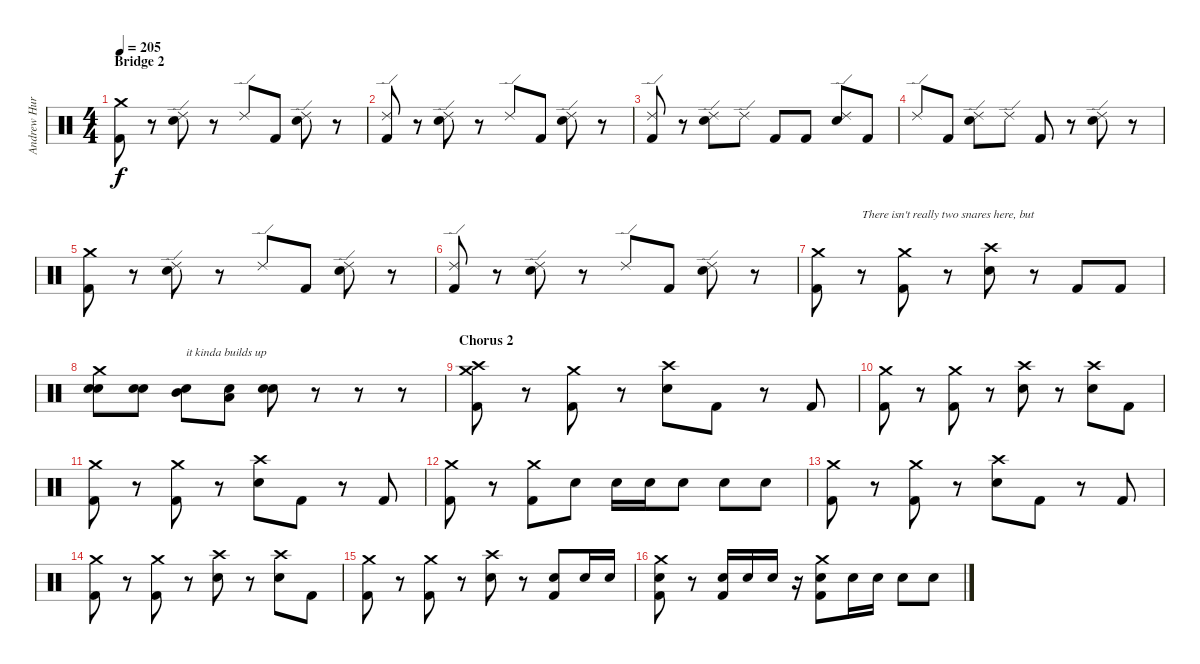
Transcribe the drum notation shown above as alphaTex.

\track ("Andrew Hurley (Drums)" "Andrew Hur") {instrument percussion}
\staff {score}
\articulation defaults
\ts (4 4)
\section ("" "Bridge 2")
\tempo 205
\clef neutral
\ks c
("Crash medium (hit)" "Kick (hit) 2").8{dy f} r.8 ("Ride (edge) 2" "Electric Snare (hit)").8 r.8 "Ride (edge) 2".8 "Kick (hit) 2".8 ("Ride (edge) 2" "Electric Snare (hit)").8 r.8 |
("Ride (edge) 2" "Kick (hit) 2").8 r.8 ("Ride (edge) 2" "Electric Snare (hit)").8 r.8 "Ride (edge) 2".8 "Kick (hit) 2".8 ("Ride (edge) 2" "Electric Snare (hit)").8 r.8 |
("Ride (edge) 2" "Kick (hit) 2").8 r.8 ("Ride (edge) 2" "Electric Snare (hit)").8 "Ride (edge) 2".8 "Kick (hit) 2".8 "Kick (hit) 2".8 ("Ride (edge) 2" "Electric Snare (hit)").8 "Kick (hit) 2".8 |
"Ride (edge) 2".8 "Kick (hit) 2".8 ("Ride (edge) 2" "Electric Snare (hit)").8 "Ride (edge) 2".8 "Kick (hit) 2".8 r.8 ("Ride (edge) 2" "Electric Snare (hit)").8 r.8 |
("Crash medium (hit)" "Kick (hit) 2").8 r.8 ("Ride (edge) 2" "Electric Snare (hit)").8 r.8 "Ride (edge) 2".8 "Kick (hit) 2".8 ("Ride (edge) 2" "Electric Snare (hit)").8 r.8 |
("Ride (edge) 2" "Kick (hit) 2").8 r.8 ("Ride (edge) 2" "Electric Snare (hit)").8 r.8 "Ride (edge) 2".8 "Kick (hit) 2".8 ("Ride (edge) 2" "Electric Snare (hit)").8 r.8 |
("Crash medium (hit)" "Kick (hit) 2").8 r.8{txt "There isn't really two snares here, but"} ("Crash medium (hit)" "Kick (hit) 2").8 r.8 ("Crash high (hit)" "Electric Snare (hit)").8 r.8 "Kick (hit) 2".8 "Kick (hit) 2".8 |
("Crash medium (hit)" "Electric Snare (hit)" "Snare (hit) 2").8 ("Electric Snare (hit)" "Snare (hit) 2").8 ("Mid Tom (hit)" "Snare (hit) 2").8{txt "it kinda builds up"} ("Low Tom (hit)" "Snare (hit) 2").8 ("Electric Snare (hit)" "Snare (hit) 2").8 r.8 r.8 r.8 |
\section ("" "Chorus 2")
("Crash high (hit)" "Crash medium (hit)" "Kick (hit) 2").8 r.8 ("Crash medium (hit)" "Kick (hit) 2").8 r.8 ("Crash high (hit)" "Electric Snare (hit)").8 "Kick (hit) 2".8 r.8 "Kick (hit) 2".8 |
("Crash medium (hit)" "Kick (hit) 2").8 r.8 ("Crash medium (hit)" "Kick (hit) 2").8 r.8 ("Crash high (hit)" "Electric Snare (hit)").8 r.8 ("Crash high (hit)" "Electric Snare (hit)").8 "Kick (hit) 2".8 |
("Crash medium (hit)" "Kick (hit) 2").8 r.8 ("Crash medium (hit)" "Kick (hit) 2").8 r.8 ("Crash high (hit)" "Electric Snare (hit)").8 "Kick (hit) 2".8 r.8 "Kick (hit) 2".8 |
("Crash medium (hit)" "Kick (hit) 2").8 r.8 ("Crash medium (hit)" "Kick (hit) 2").8 "Electric Snare (hit)".8 "Electric Snare (hit)".16 "Electric Snare (hit)".16 "Electric Snare (hit)".8 "Electric Snare (hit)".8 "Electric Snare (hit)".8 |
("Crash medium (hit)" "Kick (hit) 2").8 r.8 ("Crash medium (hit)" "Kick (hit) 2").8 r.8 ("Crash high (hit)" "Electric Snare (hit)").8 "Kick (hit) 2".8 r.8 "Kick (hit) 2".8 |
("Crash medium (hit)" "Kick (hit) 2").8 r.8 ("Crash medium (hit)" "Kick (hit) 2").8 r.8 ("Crash high (hit)" "Electric Snare (hit)").8 r.8 ("Crash high (hit)" "Electric Snare (hit)").8 "Kick (hit) 2".8 |
("Crash medium (hit)" "Kick (hit) 2").8 r.8 ("Crash medium (hit)" "Kick (hit) 2").8 r.8 ("Crash high (hit)" "Electric Snare (hit)").8 r.8 ("Electric Snare (hit)" "Kick (hit) 2").8 "Electric Snare (hit)".16 "Electric Snare (hit)".16 |
("Crash medium (hit)" "Electric Snare (hit)" "Kick (hit) 2").8 r.8 ("Electric Snare (hit)" "Kick (hit) 2").16 "Electric Snare (hit)".16 "Electric Snare (hit)".16 r.16 ("Crash medium (hit)" "Electric Snare (hit)" "Kick (hit) 2").8 "Electric Snare (hit)".16 "Electric Snare (hit)".16 "Electric Snare (hit)".8 "Electric Snare (hit)".8
